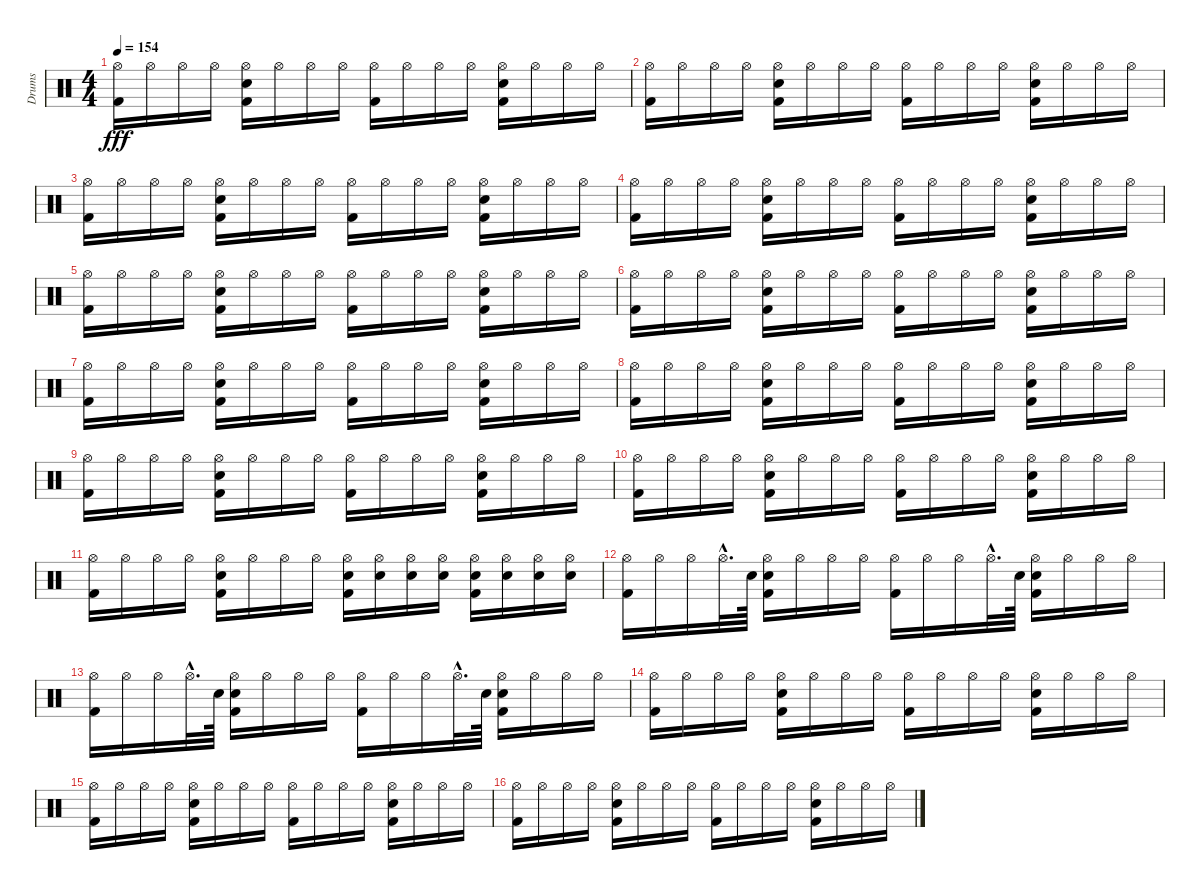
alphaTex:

\track ("Drums" "Drums") {instrument percussion}
\staff {score}
\articulation defaults
\ts (4 4)
\tempo 154
\clef neutral
\ks c
("Hi-Hat (open)" "Kick (hit) 2").16{dy fff} "Hi-Hat (open)".16 "Hi-Hat (open)".16 "Hi-Hat (open)".16 ("Hi-Hat (open)" "Snare (hit) 2" "Kick (hit) 2").16 "Hi-Hat (open)".16 "Hi-Hat (open)".16 "Hi-Hat (open)".16 ("Hi-Hat (open)" "Kick (hit) 2").16 "Hi-Hat (open)".16 "Hi-Hat (open)".16 "Hi-Hat (open)".16 ("Hi-Hat (open)" "Snare (hit) 2" "Kick (hit) 2").16 "Hi-Hat (open)".16 "Hi-Hat (open)".16 "Hi-Hat (open)".16 |
("Hi-Hat (open)" "Kick (hit) 2").16 "Hi-Hat (open)".16 "Hi-Hat (open)".16 "Hi-Hat (open)".16 ("Hi-Hat (open)" "Snare (hit) 2" "Kick (hit) 2").16 "Hi-Hat (open)".16 "Hi-Hat (open)".16 "Hi-Hat (open)".16 ("Hi-Hat (open)" "Kick (hit) 2").16 "Hi-Hat (open)".16 "Hi-Hat (open)".16 "Hi-Hat (open)".16 ("Hi-Hat (open)" "Snare (hit) 2" "Kick (hit) 2").16 "Hi-Hat (open)".16 "Hi-Hat (open)".16 "Hi-Hat (open)".16 |
("Hi-Hat (open)" "Kick (hit) 2").16 "Hi-Hat (open)".16 "Hi-Hat (open)".16 "Hi-Hat (open)".16 ("Hi-Hat (open)" "Snare (hit) 2" "Kick (hit) 2").16 "Hi-Hat (open)".16 "Hi-Hat (open)".16 "Hi-Hat (open)".16 ("Hi-Hat (open)" "Kick (hit) 2").16 "Hi-Hat (open)".16 "Hi-Hat (open)".16 "Hi-Hat (open)".16 ("Hi-Hat (open)" "Snare (hit) 2" "Kick (hit) 2").16 "Hi-Hat (open)".16 "Hi-Hat (open)".16 "Hi-Hat (open)".16 |
("Hi-Hat (open)" "Kick (hit) 2").16 "Hi-Hat (open)".16 "Hi-Hat (open)".16 "Hi-Hat (open)".16 ("Hi-Hat (open)" "Snare (hit) 2" "Kick (hit) 2").16 "Hi-Hat (open)".16 "Hi-Hat (open)".16 "Hi-Hat (open)".16 ("Hi-Hat (open)" "Kick (hit) 2").16 "Hi-Hat (open)".16 "Hi-Hat (open)".16 "Hi-Hat (open)".16 ("Hi-Hat (open)" "Snare (hit) 2" "Kick (hit) 2").16 "Hi-Hat (open)".16 "Hi-Hat (open)".16 "Hi-Hat (open)".16 |
("Hi-Hat (open)" "Kick (hit) 2").16 "Hi-Hat (open)".16 "Hi-Hat (open)".16 "Hi-Hat (open)".16 ("Hi-Hat (open)" "Snare (hit) 2" "Kick (hit) 2").16 "Hi-Hat (open)".16 "Hi-Hat (open)".16 "Hi-Hat (open)".16 ("Hi-Hat (open)" "Kick (hit) 2").16 "Hi-Hat (open)".16 "Hi-Hat (open)".16 "Hi-Hat (open)".16 ("Hi-Hat (open)" "Snare (hit) 2" "Kick (hit) 2").16 "Hi-Hat (open)".16 "Hi-Hat (open)".16 "Hi-Hat (open)".16 |
("Hi-Hat (open)" "Kick (hit) 2").16 "Hi-Hat (open)".16 "Hi-Hat (open)".16 "Hi-Hat (open)".16 ("Hi-Hat (open)" "Snare (hit) 2" "Kick (hit) 2").16 "Hi-Hat (open)".16 "Hi-Hat (open)".16 "Hi-Hat (open)".16 ("Hi-Hat (open)" "Kick (hit) 2").16 "Hi-Hat (open)".16 "Hi-Hat (open)".16 "Hi-Hat (open)".16 ("Hi-Hat (open)" "Snare (hit) 2" "Kick (hit) 2").16 "Hi-Hat (open)".16 "Hi-Hat (open)".16 "Hi-Hat (open)".16 |
("Hi-Hat (open)" "Kick (hit) 2").16 "Hi-Hat (open)".16 "Hi-Hat (open)".16 "Hi-Hat (open)".16 ("Hi-Hat (open)" "Snare (hit) 2" "Kick (hit) 2").16 "Hi-Hat (open)".16 "Hi-Hat (open)".16 "Hi-Hat (open)".16 ("Hi-Hat (open)" "Kick (hit) 2").16 "Hi-Hat (open)".16 "Hi-Hat (open)".16 "Hi-Hat (open)".16 ("Hi-Hat (open)" "Snare (hit) 2" "Kick (hit) 2").16 "Hi-Hat (open)".16 "Hi-Hat (open)".16 "Hi-Hat (open)".16 |
("Hi-Hat (open)" "Kick (hit) 2").16 "Hi-Hat (open)".16 "Hi-Hat (open)".16 "Hi-Hat (open)".16 ("Hi-Hat (open)" "Snare (hit) 2" "Kick (hit) 2").16 "Hi-Hat (open)".16 "Hi-Hat (open)".16 "Hi-Hat (open)".16 ("Hi-Hat (open)" "Kick (hit) 2").16 "Hi-Hat (open)".16 "Hi-Hat (open)".16 "Hi-Hat (open)".16 ("Hi-Hat (open)" "Snare (hit) 2" "Kick (hit) 2").16 "Hi-Hat (open)".16 "Hi-Hat (open)".16 "Hi-Hat (open)".16 |
("Hi-Hat (open)" "Kick (hit) 2").16 "Hi-Hat (open)".16 "Hi-Hat (open)".16 "Hi-Hat (open)".16 ("Hi-Hat (open)" "Snare (hit) 2" "Kick (hit) 2").16 "Hi-Hat (open)".16 "Hi-Hat (open)".16 "Hi-Hat (open)".16 ("Hi-Hat (open)" "Kick (hit) 2").16 "Hi-Hat (open)".16 "Hi-Hat (open)".16 "Hi-Hat (open)".16 ("Hi-Hat (open)" "Snare (hit) 2" "Kick (hit) 2").16 "Hi-Hat (open)".16 "Hi-Hat (open)".16 "Hi-Hat (open)".16 |
("Hi-Hat (open)" "Kick (hit) 2").16 "Hi-Hat (open)".16 "Hi-Hat (open)".16 "Hi-Hat (open)".16 ("Hi-Hat (open)" "Snare (hit) 2" "Kick (hit) 2").16 "Hi-Hat (open)".16 "Hi-Hat (open)".16 "Hi-Hat (open)".16 ("Hi-Hat (open)" "Kick (hit) 2").16 "Hi-Hat (open)".16 "Hi-Hat (open)".16 "Hi-Hat (open)".16 ("Hi-Hat (open)" "Snare (hit) 2" "Kick (hit) 2").16 "Hi-Hat (open)".16 "Hi-Hat (open)".16 "Hi-Hat (open)".16 |
("Hi-Hat (open)" "Kick (hit) 2").16 "Hi-Hat (open)".16 "Hi-Hat (open)".16 "Hi-Hat (open)".16 ("Hi-Hat (open)" "Snare (hit) 2" "Kick (hit) 2").16 "Hi-Hat (open)".16 "Hi-Hat (open)".16 "Hi-Hat (open)".16 ("Hi-Hat (open)" "Snare (hit) 2" "Kick (hit) 2").16 ("Hi-Hat (open)" "Snare (hit) 2").16 ("Hi-Hat (open)" "Snare (hit) 2").16 ("Hi-Hat (open)" "Snare (hit) 2").16 ("Hi-Hat (open)" "Snare (hit) 2" "Kick (hit) 2").16 ("Hi-Hat (open)" "Snare (hit) 2").16 ("Hi-Hat (open)" "Snare (hit) 2").16 ("Hi-Hat (open)" "Snare (hit) 2").16 |
("Hi-Hat (open)" "Kick (hit) 2").16 "Hi-Hat (open)".16 "Hi-Hat (open)".16 "Hi-Hat (open)"{hac}.32{d} "Snare (hit) 2".64 ("Hi-Hat (open)" "Snare (hit) 2" "Kick (hit) 2").16 "Hi-Hat (open)".16 "Hi-Hat (open)".16 "Hi-Hat (open)".16 ("Hi-Hat (open)" "Kick (hit) 2").16 "Hi-Hat (open)".16 "Hi-Hat (open)".16 "Hi-Hat (open)"{hac}.32{d} "Snare (hit) 2".64 ("Hi-Hat (open)" "Snare (hit) 2" "Kick (hit) 2").16 "Hi-Hat (open)".16 "Hi-Hat (open)".16 "Hi-Hat (open)".16 |
("Hi-Hat (open)" "Kick (hit) 2").16 "Hi-Hat (open)".16 "Hi-Hat (open)".16 "Hi-Hat (open)"{hac}.32{d} "Snare (hit) 2".64 ("Hi-Hat (open)" "Snare (hit) 2" "Kick (hit) 2").16 "Hi-Hat (open)".16 "Hi-Hat (open)".16 "Hi-Hat (open)".16 ("Hi-Hat (open)" "Kick (hit) 2").16 "Hi-Hat (open)".16 "Hi-Hat (open)".16 "Hi-Hat (open)"{hac}.32{d} "Snare (hit) 2".64 ("Hi-Hat (open)" "Snare (hit) 2" "Kick (hit) 2").16 "Hi-Hat (open)".16 "Hi-Hat (open)".16 "Hi-Hat (open)".16 |
("Hi-Hat (open)" "Kick (hit) 2").16 "Hi-Hat (open)".16 "Hi-Hat (open)".16 "Hi-Hat (open)".16 ("Hi-Hat (open)" "Snare (hit) 2" "Kick (hit) 2").16 "Hi-Hat (open)".16 "Hi-Hat (open)".16 "Hi-Hat (open)".16 ("Hi-Hat (open)" "Kick (hit) 2").16 "Hi-Hat (open)".16 "Hi-Hat (open)".16 "Hi-Hat (open)".16 ("Hi-Hat (open)" "Snare (hit) 2" "Kick (hit) 2").16 "Hi-Hat (open)".16 "Hi-Hat (open)".16 "Hi-Hat (open)".16 |
("Hi-Hat (open)" "Kick (hit) 2").16 "Hi-Hat (open)".16 "Hi-Hat (open)".16 "Hi-Hat (open)".16 ("Hi-Hat (open)" "Snare (hit) 2" "Kick (hit) 2").16 "Hi-Hat (open)".16 "Hi-Hat (open)".16 "Hi-Hat (open)".16 ("Hi-Hat (open)" "Kick (hit) 2").16 "Hi-Hat (open)".16 "Hi-Hat (open)".16 "Hi-Hat (open)".16 ("Hi-Hat (open)" "Snare (hit) 2" "Kick (hit) 2").16 "Hi-Hat (open)".16 "Hi-Hat (open)".16 "Hi-Hat (open)".16 |
("Hi-Hat (open)" "Kick (hit) 2").16 "Hi-Hat (open)".16 "Hi-Hat (open)".16 "Hi-Hat (open)".16 ("Hi-Hat (open)" "Snare (hit) 2" "Kick (hit) 2").16 "Hi-Hat (open)".16 "Hi-Hat (open)".16 "Hi-Hat (open)".16 ("Hi-Hat (open)" "Kick (hit) 2").16 "Hi-Hat (open)".16 "Hi-Hat (open)".16 "Hi-Hat (open)".16 ("Hi-Hat (open)" "Snare (hit) 2" "Kick (hit) 2").16 "Hi-Hat (open)".16 "Hi-Hat (open)".16 "Hi-Hat (open)".16
